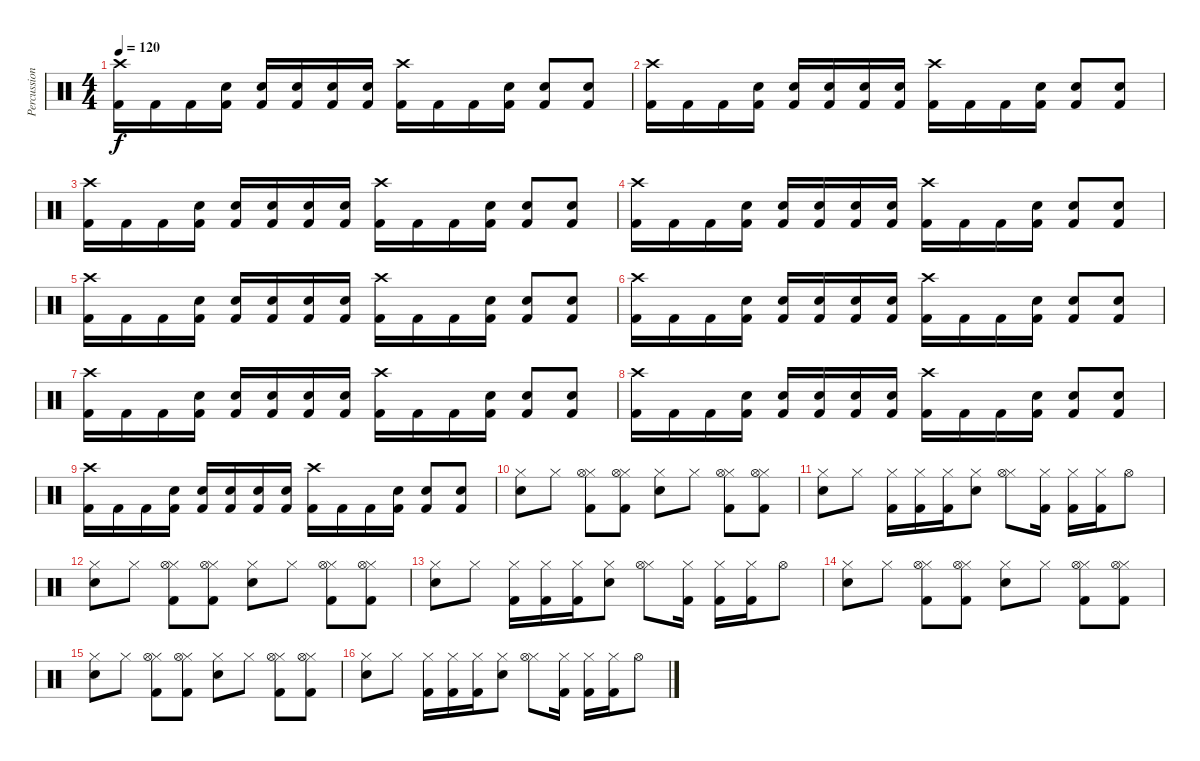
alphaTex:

\track ("Percussioni" "Percussion") {instrument percussion}
\staff {score}
\articulation defaults
\ts (4 4)
\tempo 120
\clef neutral
\ks c
("Kick (hit) 2" "Crash high (hit)").16{dy f} "Kick (hit) 2".16 "Kick (hit) 2".16 ("Kick (hit) 2" "Electric Snare (hit)").16 ("Kick (hit) 2" "Electric Snare (hit)").16 ("Kick (hit) 2" "Electric Snare (hit)").16 ("Kick (hit) 2" "Electric Snare (hit)").16 ("Kick (hit) 2" "Electric Snare (hit)").16 ("Kick (hit) 2" "Crash high (hit)").16 "Kick (hit) 2".16 "Kick (hit) 2".16 ("Kick (hit) 2" "Electric Snare (hit)").16 ("Kick (hit) 2" "Electric Snare (hit)").8 ("Kick (hit) 2" "Electric Snare (hit)").8 |
("Kick (hit) 2" "Crash high (hit)").16 "Kick (hit) 2".16 "Kick (hit) 2".16 ("Kick (hit) 2" "Electric Snare (hit)").16 ("Kick (hit) 2" "Electric Snare (hit)").16 ("Kick (hit) 2" "Electric Snare (hit)").16 ("Kick (hit) 2" "Electric Snare (hit)").16 ("Kick (hit) 2" "Electric Snare (hit)").16 ("Kick (hit) 2" "Crash high (hit)").16 "Kick (hit) 2".16 "Kick (hit) 2".16 ("Kick (hit) 2" "Electric Snare (hit)").16 ("Kick (hit) 2" "Electric Snare (hit)").8 ("Kick (hit) 2" "Electric Snare (hit)").8 |
("Kick (hit) 2" "Crash high (hit)").16 "Kick (hit) 2".16 "Kick (hit) 2".16 ("Kick (hit) 2" "Electric Snare (hit)").16 ("Kick (hit) 2" "Electric Snare (hit)").16 ("Kick (hit) 2" "Electric Snare (hit)").16 ("Kick (hit) 2" "Electric Snare (hit)").16 ("Kick (hit) 2" "Electric Snare (hit)").16 ("Kick (hit) 2" "Crash high (hit)").16 "Kick (hit) 2".16 "Kick (hit) 2".16 ("Kick (hit) 2" "Electric Snare (hit)").16 ("Kick (hit) 2" "Electric Snare (hit)").8 ("Kick (hit) 2" "Electric Snare (hit)").8 |
("Kick (hit) 2" "Crash high (hit)").16 "Kick (hit) 2".16 "Kick (hit) 2".16 ("Kick (hit) 2" "Electric Snare (hit)").16 ("Kick (hit) 2" "Electric Snare (hit)").16 ("Kick (hit) 2" "Electric Snare (hit)").16 ("Kick (hit) 2" "Electric Snare (hit)").16 ("Kick (hit) 2" "Electric Snare (hit)").16 ("Kick (hit) 2" "Crash high (hit)").16 "Kick (hit) 2".16 "Kick (hit) 2".16 ("Kick (hit) 2" "Electric Snare (hit)").16 ("Kick (hit) 2" "Electric Snare (hit)").8 ("Kick (hit) 2" "Electric Snare (hit)").8 |
("Kick (hit) 2" "Crash high (hit)").16 "Kick (hit) 2".16 "Kick (hit) 2".16 ("Kick (hit) 2" "Electric Snare (hit)").16 ("Kick (hit) 2" "Electric Snare (hit)").16 ("Kick (hit) 2" "Electric Snare (hit)").16 ("Kick (hit) 2" "Electric Snare (hit)").16 ("Kick (hit) 2" "Electric Snare (hit)").16 ("Kick (hit) 2" "Crash high (hit)").16 "Kick (hit) 2".16 "Kick (hit) 2".16 ("Kick (hit) 2" "Electric Snare (hit)").16 ("Kick (hit) 2" "Electric Snare (hit)").8 ("Kick (hit) 2" "Electric Snare (hit)").8 |
("Kick (hit) 2" "Crash high (hit)").16 "Kick (hit) 2".16 "Kick (hit) 2".16 ("Kick (hit) 2" "Electric Snare (hit)").16 ("Kick (hit) 2" "Electric Snare (hit)").16 ("Kick (hit) 2" "Electric Snare (hit)").16 ("Kick (hit) 2" "Electric Snare (hit)").16 ("Kick (hit) 2" "Electric Snare (hit)").16 ("Kick (hit) 2" "Crash high (hit)").16 "Kick (hit) 2".16 "Kick (hit) 2".16 ("Kick (hit) 2" "Electric Snare (hit)").16 ("Kick (hit) 2" "Electric Snare (hit)").8 ("Kick (hit) 2" "Electric Snare (hit)").8 |
("Kick (hit) 2" "Crash high (hit)").16 "Kick (hit) 2".16 "Kick (hit) 2".16 ("Kick (hit) 2" "Electric Snare (hit)").16 ("Kick (hit) 2" "Electric Snare (hit)").16 ("Kick (hit) 2" "Electric Snare (hit)").16 ("Kick (hit) 2" "Electric Snare (hit)").16 ("Kick (hit) 2" "Electric Snare (hit)").16 ("Kick (hit) 2" "Crash high (hit)").16 "Kick (hit) 2".16 "Kick (hit) 2".16 ("Kick (hit) 2" "Electric Snare (hit)").16 ("Kick (hit) 2" "Electric Snare (hit)").8 ("Kick (hit) 2" "Electric Snare (hit)").8 |
("Kick (hit) 2" "Crash high (hit)").16 "Kick (hit) 2".16 "Kick (hit) 2".16 ("Kick (hit) 2" "Electric Snare (hit)").16 ("Kick (hit) 2" "Electric Snare (hit)").16 ("Kick (hit) 2" "Electric Snare (hit)").16 ("Kick (hit) 2" "Electric Snare (hit)").16 ("Kick (hit) 2" "Electric Snare (hit)").16 ("Kick (hit) 2" "Crash high (hit)").16 "Kick (hit) 2".16 "Kick (hit) 2".16 ("Kick (hit) 2" "Electric Snare (hit)").16 ("Kick (hit) 2" "Electric Snare (hit)").8 ("Kick (hit) 2" "Electric Snare (hit)").8 |
("Kick (hit) 2" "Crash high (hit)").16 "Kick (hit) 2".16 "Kick (hit) 2".16 ("Kick (hit) 2" "Electric Snare (hit)").16 ("Kick (hit) 2" "Electric Snare (hit)").16 ("Kick (hit) 2" "Electric Snare (hit)").16 ("Kick (hit) 2" "Electric Snare (hit)").16 ("Kick (hit) 2" "Electric Snare (hit)").16 ("Kick (hit) 2" "Crash high (hit)").16 "Kick (hit) 2".16 "Kick (hit) 2".16 ("Kick (hit) 2" "Electric Snare (hit)").16 ("Kick (hit) 2" "Electric Snare (hit)").8 ("Kick (hit) 2" "Electric Snare (hit)").8 |
("Hi-Hat (closed)" "Electric Snare (hit)").8 "Hi-Hat (closed)".8 ("Hi-Hat (closed)" "Hi-Hat (open)" "Kick (hit) 2").8 ("Hi-Hat (closed)" "Hi-Hat (open)" "Kick (hit) 2").8 ("Hi-Hat (closed)" "Electric Snare (hit)").8 "Hi-Hat (closed)".8 ("Hi-Hat (closed)" "Hi-Hat (open)" "Kick (hit) 2").8 ("Hi-Hat (closed)" "Hi-Hat (open)" "Kick (hit) 2").8 |
("Hi-Hat (closed)" "Electric Snare (hit)").8 "Hi-Hat (closed)".8 ("Hi-Hat (closed)" "Kick (hit) 2").16 ("Hi-Hat (closed)" "Kick (hit) 2").16 ("Hi-Hat (closed)" "Kick (hit) 2").16 ("Hi-Hat (closed)" "Electric Snare (hit)").8 ("Hi-Hat (closed)" "Hi-Hat (open)").8 ("Hi-Hat (closed)" "Kick (hit) 2").16 ("Hi-Hat (closed)" "Kick (hit) 2").16 ("Hi-Hat (closed)" "Kick (hit) 2").16 "Hi-Hat (open)".8 |
("Hi-Hat (closed)" "Electric Snare (hit)").8 "Hi-Hat (closed)".8 ("Hi-Hat (closed)" "Hi-Hat (open)" "Kick (hit) 2").8 ("Hi-Hat (closed)" "Hi-Hat (open)" "Kick (hit) 2").8 ("Hi-Hat (closed)" "Electric Snare (hit)").8 "Hi-Hat (closed)".8 ("Hi-Hat (closed)" "Hi-Hat (open)" "Kick (hit) 2").8 ("Hi-Hat (closed)" "Hi-Hat (open)" "Kick (hit) 2").8 |
("Hi-Hat (closed)" "Electric Snare (hit)").8 "Hi-Hat (closed)".8 ("Hi-Hat (closed)" "Kick (hit) 2").16 ("Hi-Hat (closed)" "Kick (hit) 2").16 ("Hi-Hat (closed)" "Kick (hit) 2").16 ("Hi-Hat (closed)" "Electric Snare (hit)").8 ("Hi-Hat (closed)" "Hi-Hat (open)").8 ("Hi-Hat (closed)" "Kick (hit) 2").16 ("Hi-Hat (closed)" "Kick (hit) 2").16 ("Hi-Hat (closed)" "Kick (hit) 2").16 "Hi-Hat (open)".8 |
("Hi-Hat (closed)" "Electric Snare (hit)").8 "Hi-Hat (closed)".8 ("Hi-Hat (closed)" "Hi-Hat (open)" "Kick (hit) 2").8 ("Hi-Hat (closed)" "Hi-Hat (open)" "Kick (hit) 2").8 ("Hi-Hat (closed)" "Electric Snare (hit)").8 "Hi-Hat (closed)".8 ("Hi-Hat (closed)" "Hi-Hat (open)" "Kick (hit) 2").8 ("Hi-Hat (closed)" "Hi-Hat (open)" "Kick (hit) 2").8 |
("Hi-Hat (closed)" "Electric Snare (hit)").8 "Hi-Hat (closed)".8 ("Hi-Hat (closed)" "Hi-Hat (open)" "Kick (hit) 2").8 ("Hi-Hat (closed)" "Hi-Hat (open)" "Kick (hit) 2").8 ("Hi-Hat (closed)" "Electric Snare (hit)").8 "Hi-Hat (closed)".8 ("Hi-Hat (closed)" "Hi-Hat (open)" "Kick (hit) 2").8 ("Hi-Hat (closed)" "Hi-Hat (open)" "Kick (hit) 2").8 |
("Hi-Hat (closed)" "Electric Snare (hit)").8 "Hi-Hat (closed)".8 ("Hi-Hat (closed)" "Kick (hit) 2").16 ("Hi-Hat (closed)" "Kick (hit) 2").16 ("Hi-Hat (closed)" "Kick (hit) 2").16 ("Hi-Hat (closed)" "Electric Snare (hit)").8 ("Hi-Hat (closed)" "Hi-Hat (open)").8 ("Hi-Hat (closed)" "Kick (hit) 2").16 ("Hi-Hat (closed)" "Kick (hit) 2").16 ("Hi-Hat (closed)" "Kick (hit) 2").16 "Hi-Hat (open)".8
